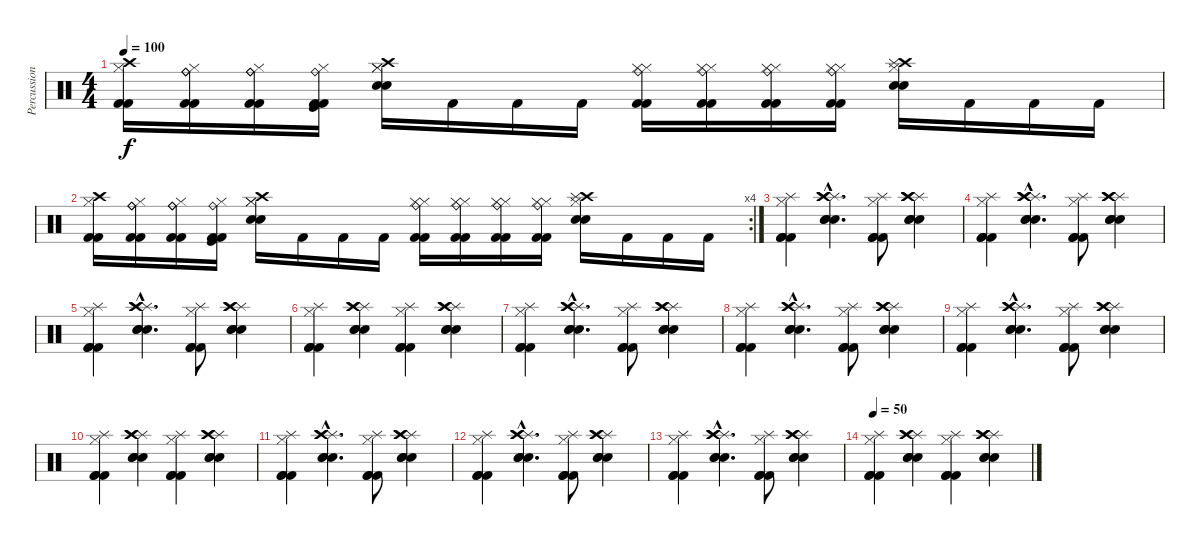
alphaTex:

\track ("Percussion" "Percussion") {instrument percussion}
\staff {score}
\articulation defaults
\ts (4 4)
\tempo 100
\clef neutral
\ks c
("Crash high (hit)" "Hi-Hat (closed)" "Kick (hit) 2" "Kick (hit) 2").16{dy f} ("Ride (bell)" "Ride (bell)" "Hi-Hat (closed)" "Kick (hit) 2" "Kick (hit) 2").16 ("Ride (bell)" "Ride (bell)" "Hi-Hat (closed)" "Kick (hit) 2" "Kick (hit) 2").16 ("Ride (bell)" "Kick (hit)" "Hi-Hat (closed)" "Kick (hit) 2" "Kick (hit) 2").16 ("Crash high (hit)" "Hi-Hat (closed)" "Hi-Hat (closed)" "Snare (hit) 2" "Snare (hit) 2").16 "Kick (hit) 2".16 "Kick (hit) 2".16 "Kick (hit) 2".16 ("Ride (bell)" "Hi-Hat (closed)" "Hi-Hat (closed)" "Kick (hit) 2" "Kick (hit) 2").16 ("Ride (bell)" "Hi-Hat (closed)" "Hi-Hat (closed)" "Kick (hit) 2" "Kick (hit) 2").16 ("Ride (bell)" "Hi-Hat (closed)" "Hi-Hat (closed)" "Kick (hit) 2" "Kick (hit) 2").16 ("Ride (bell)" "Hi-Hat (closed)" "Hi-Hat (closed)" "Kick (hit) 2" "Kick (hit) 2").16 ("Crash high (hit)" "Splash (hit)" "Hi-Hat (closed)" "Snare (hit) 2" "Snare (hit) 2").16 "Kick (hit) 2".16 "Kick (hit) 2".16 "Kick (hit) 2".16 |
\rc 4
("Crash high (hit)" "Hi-Hat (closed)" "Kick (hit) 2" "Kick (hit) 2").16 ("Ride (bell)" "Ride (bell)" "Hi-Hat (closed)" "Kick (hit) 2" "Kick (hit) 2").16 ("Ride (bell)" "Ride (bell)" "Hi-Hat (closed)" "Kick (hit) 2" "Kick (hit) 2").16 ("Ride (bell)" "Kick (hit)" "Hi-Hat (closed)" "Kick (hit) 2" "Kick (hit) 2").16 ("Crash high (hit)" "Hi-Hat (closed)" "Hi-Hat (closed)" "Snare (hit) 2" "Snare (hit) 2").16 "Kick (hit) 2".16 "Kick (hit) 2".16 "Kick (hit) 2".16 ("Ride (bell)" "Hi-Hat (closed)" "Hi-Hat (closed)" "Kick (hit) 2" "Kick (hit) 2").16 ("Ride (bell)" "Hi-Hat (closed)" "Hi-Hat (closed)" "Kick (hit) 2" "Kick (hit) 2").16 ("Ride (bell)" "Hi-Hat (closed)" "Hi-Hat (closed)" "Kick (hit) 2" "Kick (hit) 2").16 ("Ride (bell)" "Hi-Hat (closed)" "Hi-Hat (closed)" "Kick (hit) 2" "Kick (hit) 2").16 ("Crash high (hit)" "Splash (hit)" "Hi-Hat (closed)" "Snare (hit) 2" "Snare (hit) 2").16 "Kick (hit) 2".16 "Kick (hit) 2".16 "Kick (hit) 2".16 |
("Splash (hit)" "Hi-Hat (closed)" "Kick (hit) 2" "Kick (hit) 2" "Kick (hit) 2").4 ("Splash (hit)"{hac} "Crash high (hit)"{hac} "Crash high (hit)"{hac} "Snare (hit) 2"{hac} "Snare (hit) 2"{hac} "Snare (hit) 2"{hac}).4{d} ("Splash (hit)" "Hi-Hat (closed)" "Kick (hit) 2" "Kick (hit) 2" "Kick (hit) 2").8 ("Splash (hit)" "Crash high (hit)" "Crash high (hit)" "Snare (hit) 2" "Snare (hit) 2" "Snare (hit) 2").4 |
("Splash (hit)" "Hi-Hat (closed)" "Kick (hit) 2" "Kick (hit) 2" "Kick (hit) 2").4 ("Splash (hit)"{hac} "Crash high (hit)"{hac} "Crash high (hit)"{hac} "Snare (hit) 2"{hac} "Snare (hit) 2"{hac} "Snare (hit) 2"{hac}).4{d} ("Splash (hit)" "Hi-Hat (closed)" "Kick (hit) 2" "Kick (hit) 2" "Kick (hit) 2").8 ("Splash (hit)" "Crash high (hit)" "Crash high (hit)" "Snare (hit) 2" "Snare (hit) 2" "Snare (hit) 2").4 |
("Splash (hit)" "Hi-Hat (closed)" "Kick (hit) 2" "Kick (hit) 2" "Kick (hit) 2").4 ("Splash (hit)"{hac} "Crash high (hit)"{hac} "Crash high (hit)"{hac} "Snare (hit) 2"{hac} "Snare (hit) 2"{hac} "Snare (hit) 2"{hac}).4{d} ("Splash (hit)" "Hi-Hat (closed)" "Kick (hit) 2" "Kick (hit) 2" "Kick (hit) 2").8 ("Splash (hit)" "Crash high (hit)" "Crash high (hit)" "Snare (hit) 2" "Snare (hit) 2" "Snare (hit) 2").4 |
("Splash (hit)" "Hi-Hat (closed)" "Kick (hit) 2" "Kick (hit) 2" "Kick (hit) 2").4 ("Splash (hit)" "Crash high (hit)" "Crash high (hit)" "Snare (hit) 2" "Snare (hit) 2" "Snare (hit) 2").4 ("Splash (hit)" "Hi-Hat (closed)" "Kick (hit) 2" "Kick (hit) 2" "Kick (hit) 2").4 ("Splash (hit)" "Crash high (hit)" "Crash high (hit)" "Snare (hit) 2" "Snare (hit) 2" "Snare (hit) 2").4 |
("Splash (hit)" "Hi-Hat (closed)" "Kick (hit) 2" "Kick (hit) 2" "Kick (hit) 2").4 ("Splash (hit)"{hac} "Crash high (hit)"{hac} "Crash high (hit)"{hac} "Snare (hit) 2"{hac} "Snare (hit) 2"{hac} "Snare (hit) 2"{hac}).4{d} ("Splash (hit)" "Hi-Hat (closed)" "Kick (hit) 2" "Kick (hit) 2" "Kick (hit) 2").8 ("Splash (hit)" "Crash high (hit)" "Crash high (hit)" "Snare (hit) 2" "Snare (hit) 2" "Snare (hit) 2").4 |
("Splash (hit)" "Hi-Hat (closed)" "Kick (hit) 2" "Kick (hit) 2" "Kick (hit) 2").4 ("Splash (hit)"{hac} "Crash high (hit)"{hac} "Crash high (hit)"{hac} "Snare (hit) 2"{hac} "Snare (hit) 2"{hac} "Snare (hit) 2"{hac}).4{d} ("Splash (hit)" "Hi-Hat (closed)" "Kick (hit) 2" "Kick (hit) 2" "Kick (hit) 2").8 ("Splash (hit)" "Crash high (hit)" "Crash high (hit)" "Snare (hit) 2" "Snare (hit) 2" "Snare (hit) 2").4 |
("Splash (hit)" "Hi-Hat (closed)" "Kick (hit) 2" "Kick (hit) 2" "Kick (hit) 2").4 ("Splash (hit)"{hac} "Crash high (hit)"{hac} "Crash high (hit)"{hac} "Snare (hit) 2"{hac} "Snare (hit) 2"{hac} "Snare (hit) 2"{hac}).4{d} ("Splash (hit)" "Hi-Hat (closed)" "Kick (hit) 2" "Kick (hit) 2" "Kick (hit) 2").8 ("Splash (hit)" "Crash high (hit)" "Crash high (hit)" "Snare (hit) 2" "Snare (hit) 2" "Snare (hit) 2").4 |
("Splash (hit)" "Hi-Hat (closed)" "Kick (hit) 2" "Kick (hit) 2" "Kick (hit) 2").4 ("Splash (hit)" "Crash high (hit)" "Crash high (hit)" "Snare (hit) 2" "Snare (hit) 2" "Snare (hit) 2").4 ("Splash (hit)" "Hi-Hat (closed)" "Kick (hit) 2" "Kick (hit) 2" "Kick (hit) 2").4 ("Splash (hit)" "Crash high (hit)" "Crash high (hit)" "Snare (hit) 2" "Snare (hit) 2" "Snare (hit) 2").4 |
("Splash (hit)" "Hi-Hat (closed)" "Kick (hit) 2" "Kick (hit) 2" "Kick (hit) 2").4 ("Splash (hit)"{hac} "Crash high (hit)"{hac} "Crash high (hit)"{hac} "Snare (hit) 2"{hac} "Snare (hit) 2"{hac} "Snare (hit) 2"{hac}).4{d} ("Splash (hit)" "Hi-Hat (closed)" "Kick (hit) 2" "Kick (hit) 2" "Kick (hit) 2").8 ("Splash (hit)" "Crash high (hit)" "Crash high (hit)" "Snare (hit) 2" "Snare (hit) 2" "Snare (hit) 2").4 |
("Splash (hit)" "Hi-Hat (closed)" "Kick (hit) 2" "Kick (hit) 2" "Kick (hit) 2").4 ("Splash (hit)"{hac} "Crash high (hit)"{hac} "Crash high (hit)"{hac} "Snare (hit) 2"{hac} "Snare (hit) 2"{hac} "Snare (hit) 2"{hac}).4{d} ("Splash (hit)" "Hi-Hat (closed)" "Kick (hit) 2" "Kick (hit) 2" "Kick (hit) 2").8 ("Splash (hit)" "Crash high (hit)" "Crash high (hit)" "Snare (hit) 2" "Snare (hit) 2" "Snare (hit) 2").4 |
("Splash (hit)" "Hi-Hat (closed)" "Kick (hit) 2" "Kick (hit) 2" "Kick (hit) 2").4 ("Splash (hit)"{hac} "Crash high (hit)"{hac} "Crash high (hit)"{hac} "Snare (hit) 2"{hac} "Snare (hit) 2"{hac} "Snare (hit) 2"{hac}).4{d} ("Splash (hit)" "Hi-Hat (closed)" "Kick (hit) 2" "Kick (hit) 2" "Kick (hit) 2").8 ("Splash (hit)" "Crash high (hit)" "Crash high (hit)" "Snare (hit) 2" "Snare (hit) 2" "Snare (hit) 2").4 |
\tempo 50
("Splash (hit)" "Hi-Hat (closed)" "Kick (hit) 2" "Kick (hit) 2" "Kick (hit) 2").4 ("Splash (hit)" "Crash high (hit)" "Crash high (hit)" "Snare (hit) 2" "Snare (hit) 2" "Snare (hit) 2").4 ("Splash (hit)" "Hi-Hat (closed)" "Kick (hit) 2" "Kick (hit) 2" "Kick (hit) 2").4 ("Splash (hit)" "Crash high (hit)" "Crash high (hit)" "Snare (hit) 2" "Snare (hit) 2" "Snare (hit) 2").4
